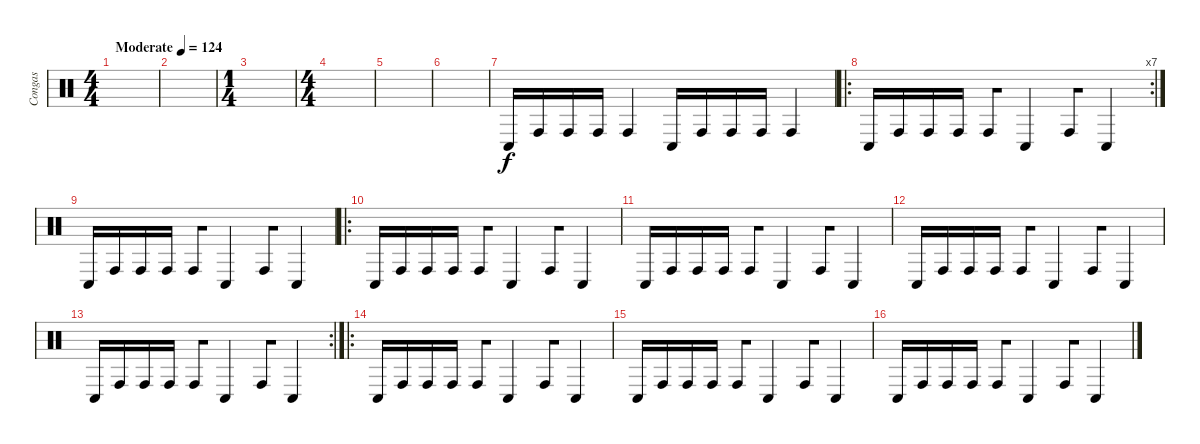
\track ("Congas" "Congas") {instrument percussion bank 2}
\staff {score}
\articulation defaults
\ts (4 4)
\tempo (124 "Moderate")
\clef neutral
\ks c
|
|
\ts (1 4)
|
\ts (4 4)
|
|
|
"Conga low (hit)".16 "Conga high (hit)".16 "Conga high (hit)".16 "Conga high (hit)".16 "Conga high (hit)".4 "Conga low (hit)".16 "Conga high (hit)".16 "Conga high (hit)".16 "Conga high (hit)".16 "Conga high (hit)".4 |
\ro
\rc 7 "Conga low (hit)".16 "Conga high (hit)".16 "Conga high (hit)".16 "Conga high (hit)".16 "Conga high (hit)".8{beam merge} "Conga low (hit)".4 "Conga high (hit)".8{beam merge} "Conga low (hit)".4
|
"Conga low (hit)".16 "Conga high (hit)".16 "Conga high (hit)".16 "Conga high (hit)".16 "Conga high (hit)".8{beam merge} "Conga low (hit)".4 "Conga high (hit)".8{beam merge} "Conga low (hit)".4 |
\ro "Conga low (hit)".16 "Conga high (hit)".16 "Conga high (hit)".16 "Conga high (hit)".16 "Conga high (hit)".8{beam merge} "Conga low (hit)".4 "Conga high (hit)".8{beam merge} "Conga low (hit)".4
|
"Conga low (hit)".16 "Conga high (hit)".16 "Conga high (hit)".16 "Conga high (hit)".16 "Conga high (hit)".8{beam merge} "Conga low (hit)".4 "Conga high (hit)".8{beam merge} "Conga low (hit)".4 |
"Conga low (hit)".16 "Conga high (hit)".16 "Conga high (hit)".16 "Conga high (hit)".16 "Conga high (hit)".8{beam merge} "Conga low (hit)".4 "Conga high (hit)".8{beam merge} "Conga low (hit)".4 |
\rc 2 "Conga low (hit)".16 "Conga high (hit)".16 "Conga high (hit)".16 "Conga high (hit)".16 "Conga high (hit)".8{beam merge} "Conga low (hit)".4 "Conga high (hit)".8{beam merge} "Conga low (hit)".4
|
\ro "Conga low (hit)".16 "Conga high (hit)".16 "Conga high (hit)".16 "Conga high (hit)".16 "Conga high (hit)".8{beam merge} "Conga low (hit)".4 "Conga high (hit)".8{beam merge} "Conga low (hit)".4
|
"Conga low (hit)".16 "Conga high (hit)".16 "Conga high (hit)".16 "Conga high (hit)".16 "Conga high (hit)".8{beam merge} "Conga low (hit)".4 "Conga high (hit)".8{beam merge} "Conga low (hit)".4 |
"Conga low (hit)".16 "Conga high (hit)".16 "Conga high (hit)".16 "Conga high (hit)".16 "Conga high (hit)".8{beam merge} "Conga low (hit)".4 "Conga high (hit)".8{beam merge} "Conga low (hit)".4
